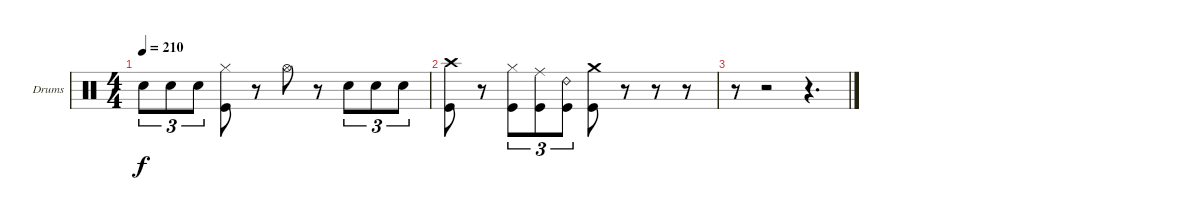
\bracketExtendMode groupsimilarinstruments
\firstSystemTrackNameOrientation horizontal
\otherSystemsTrackNameOrientation horizontal
\track ("Drumkit" "Drums") {instrument percussion}
\staff {score}
\articulation defaults
\ts (4 4)
\tempo 210
\clef neutral
\ks c "Snare (hit) 2".8{tu (3 2) dy f} "Snare (hit) 2".8{tu (3 2)} "Snare (hit) 2".8{tu (3 2)}
("Hi-Hat (closed)" "Kick (hit)").8 r.8 "Hi-Hat (open)".8 r.8 "Snare (hit) 2".8{tu (3 2)} "Snare (hit) 2".8{tu (3 2)} "Snare (hit) 2".8{tu (3 2)} |
("Crash high (hit)" "Kick (hit)").8 r.8 ("Hi-Hat (closed)" "Kick (hit)").8{tu (3 2)} ("Ride (middle)" "Kick (hit)").8{tu (3 2)} ("Ride (bell) 2" "Kick (hit)").8{tu (3 2)} ("Crash medium (hit)" "Kick (hit)").8 r.8 r.8 r.8 |
r.8 r.2 r.4{d}
